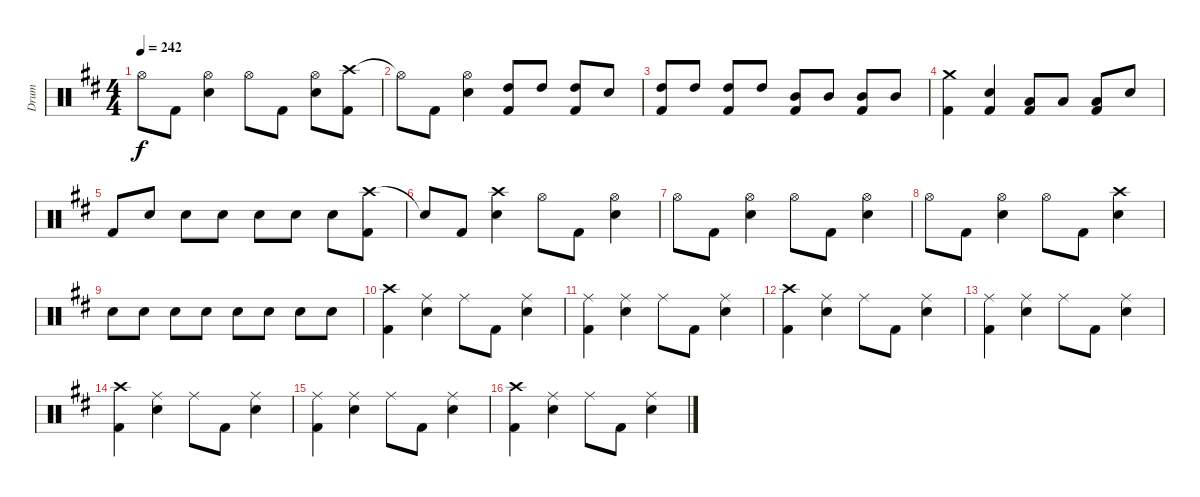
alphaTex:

\track ("Drum" "Drum") {instrument percussion}
\staff {score}
\articulation defaults
\ts (4 4)
\tempo 242
\clef neutral
\ks d "Hi-Hat (open)".8{dy f} "Kick (hit) 2".8
("Hi-Hat (open)" "Snare (hit) 2").4 "Hi-Hat (open)".8 "Kick (hit) 2".8 ("Hi-Hat (open)" "Snare (hit) 2").8 ("Crash high (hit)" "Kick (hit) 2").8 |
"Hi-Hat (open)"{t}.8 "Kick (hit) 2".8 ("Hi-Hat (open)" "Snare (hit) 2").4 ("High Tom (hit)" "Kick (hit) 2").8 "High Tom (hit)".8 ("High Tom (hit)" "Kick (hit) 2").8 "Snare (hit) 2".8 |
("High Tom (hit)" "Kick (hit) 2").8 "High Tom (hit)".8 ("High Tom (hit)" "Kick (hit) 2").8 "High Tom (hit)".8 ("Mid Tom (hit)" "Kick (hit) 2").8 "Mid Tom (hit)".8 ("Mid Tom (hit)" "Kick (hit) 2").8 "Mid Tom (hit)".8 |
("Crash medium (hit)" "Kick (hit) 2").4 ("Snare (hit) 2" "Kick (hit) 2").4 ("Low Tom (hit)" "Kick (hit) 2").8 "Low Tom (hit)".8 ("Low Tom (hit)" "Kick (hit) 2").8 "Snare (hit) 2".8 |
"Kick (hit) 2".8 "Snare (hit) 2".8 "Snare (hit) 2".8 "Snare (hit) 2".8 "Snare (hit) 2".8 "Snare (hit) 2".8 "Snare (hit) 2".8 ("Crash high (hit)" "Kick (hit) 2").8 |
"Snare (hit)"{t}.8 "Kick (hit) 2".8 ("Crash high (hit)" "Snare (hit) 2").4 "Hi-Hat (open)".8 "Kick (hit) 2".8 ("Hi-Hat (open)" "Snare (hit) 2").4 |
"Hi-Hat (open)".8 "Kick (hit) 2".8 ("Hi-Hat (open)" "Snare (hit) 2").4 "Hi-Hat (open)".8 "Kick (hit) 2".8 ("Hi-Hat (open)" "Snare (hit) 2").4 |
"Hi-Hat (open)".8 "Kick (hit) 2".8 ("Hi-Hat (open)" "Snare (hit) 2").4 "Hi-Hat (open)".8 "Kick (hit) 2".8 ("Crash high (hit)" "Snare (hit) 2").4 |
"Snare (hit) 2".8 "Snare (hit) 2".8 "Snare (hit) 2".8 "Snare (hit) 2".8 "Snare (hit) 2".8 "Snare (hit) 2".8 "Snare (hit) 2".8 "Snare (hit) 2".8 |
("Crash high (hit)" "Kick (hit) 2").4 ("Ride (middle)" "Snare (hit) 2").4 "Ride (middle)".8 "Kick (hit) 2".8 ("Ride (middle)" "Snare (hit) 2").4 |
("Ride (middle)" "Kick (hit) 2").4 ("Ride (middle)" "Snare (hit) 2").4 "Ride (middle)".8 "Kick (hit) 2".8 ("Ride (middle)" "Snare (hit) 2").4 |
("Crash high (hit)" "Kick (hit) 2").4 ("Ride (middle)" "Snare (hit) 2").4 "Ride (middle)".8 "Kick (hit) 2".8 ("Ride (middle)" "Snare (hit) 2").4 |
("Ride (middle)" "Kick (hit) 2").4 ("Ride (middle)" "Snare (hit) 2").4 "Ride (middle)".8 "Kick (hit) 2".8 ("Ride (middle)" "Snare (hit) 2").4 |
("Crash high (hit)" "Kick (hit) 2").4 ("Ride (middle)" "Snare (hit) 2").4 "Ride (middle)".8 "Kick (hit) 2".8 ("Ride (middle)" "Snare (hit) 2").4 |
("Ride (middle)" "Kick (hit) 2").4 ("Ride (middle)" "Snare (hit) 2").4 "Ride (middle)".8 "Kick (hit) 2".8 ("Ride (middle)" "Snare (hit) 2").4 |
("Crash high (hit)" "Kick (hit) 2").4 ("Ride (middle)" "Snare (hit) 2").4 "Ride (middle)".8 "Kick (hit) 2".8 ("Ride (middle)" "Snare (hit) 2").4
